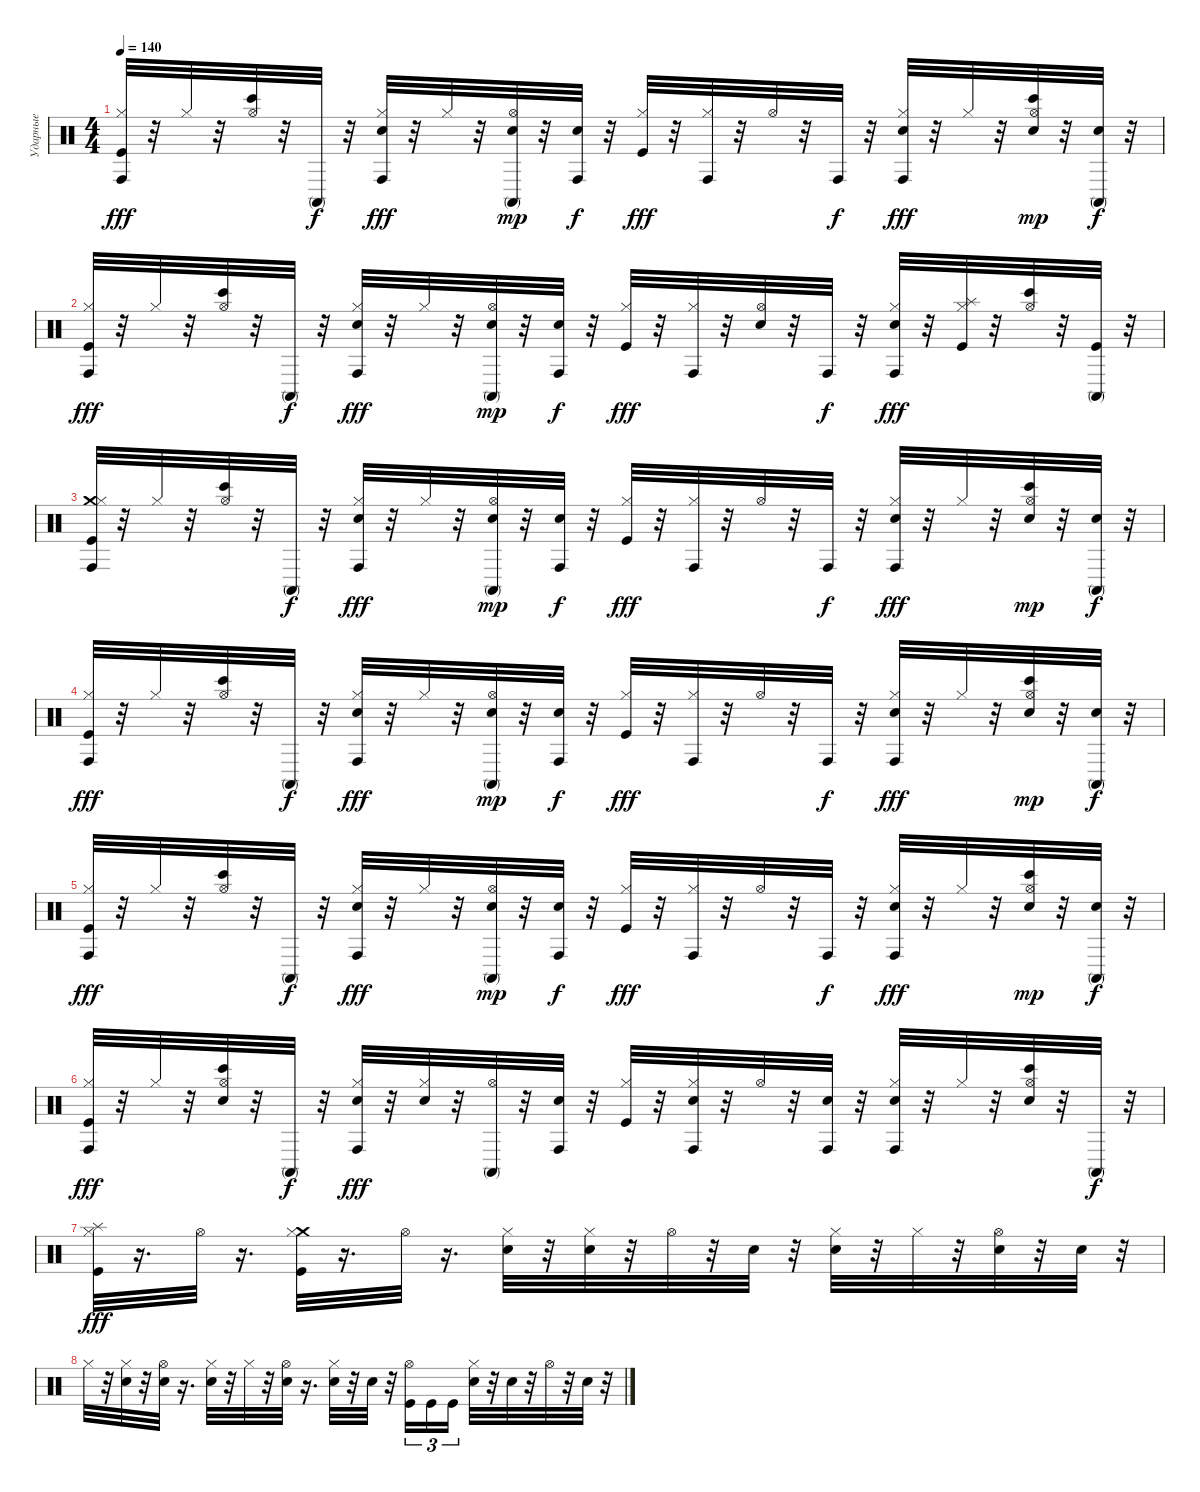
\track ("Ударные" "Ударные") {instrument percussion}
\staff {score}
\articulation defaults
\ts (4 4)
\tempo 140
\clef neutral
\ks c
("Kick (hit)" "Hi-Hat (closed)" "Conga high (hit)").32{dy fff} r.32 "Hi-Hat (closed)".32 r.32 ("Bongo High (hit)" "Hi-Hat (open)").32 r.32 "Conga high (mute)".32{dy f} r.32 ("Conga high (hit)" "Hi-Hat (closed)" "Electric Snare (hit)").32{dy fff} r.32 "Hi-Hat (closed)".32 r.32 ("Conga high (mute)" "Hi-Hat (open)" "Electric Snare (hit)").32{dy mp} r.32 ("Conga high (hit)" "Electric Snare (hit)").32{dy f} r.32 ("Hi-Hat (closed)" "Kick (hit)").32{dy fff} r.32 ("Conga high (hit)" "Hi-Hat (closed)").32 r.32 "Hi-Hat (open)".32 r.32 "Conga high (hit)".32{dy f} r.32 ("Conga high (hit)" "Hi-Hat (closed)" "Electric Snare (hit)").32{dy fff} r.32 "Hi-Hat (closed)".32 r.32 ("Bongo High (hit)" "Hi-Hat (open)" "Electric Snare (hit)").32{dy mp} r.32 ("Conga high (mute)" "Electric Snare (hit)").32{dy f} r.32 |
("Hi-Hat (closed)" "Kick (hit)" "Conga high (hit)").32{dy fff} r.32 "Hi-Hat (closed)".32 r.32 ("Hi-Hat (open)" "Bongo High (hit)").32 r.32 "Conga high (mute)".32{dy f} r.32 ("Hi-Hat (closed)" "Electric Snare (hit)" "Conga high (hit)").32{dy fff} r.32 "Hi-Hat (closed)".32 r.32 ("Hi-Hat (open)" "Electric Snare (hit)" "Conga high (mute)").32{dy mp} r.32 ("Electric Snare (hit)" "Conga high (hit)").32{dy f} r.32 ("Hi-Hat (closed)" "Kick (hit)").32{dy fff} r.32 ("Hi-Hat (closed)" "Conga high (hit)").32 r.32 ("Hi-Hat (open)" "Electric Snare (hit)").32 r.32 "Conga high (hit)".32{dy f} r.32 ("Hi-Hat (closed)" "Conga high (hit)" "Electric Snare (hit)").32{dy fff} r.32 ("Hi-Hat (closed)" "Kick (hit)" "Splash (hit)").32 r.32 ("Hi-Hat (open)" "Bongo High (hit)").32 r.32 ("Conga high (mute)" "Kick (hit)").32 r.32 |
("Conga high (hit)" "Crash medium (hit)" "Hi-Hat (closed)" "Kick (hit)").32 r.32 "Hi-Hat (closed)".32 r.32 ("Bongo High (hit)" "Hi-Hat (open)").32 r.32 "Conga high (mute)".32{dy f} r.32 ("Conga high (hit)" "Hi-Hat (closed)" "Electric Snare (hit)").32{dy fff} r.32 "Hi-Hat (closed)".32 r.32 ("Conga high (mute)" "Hi-Hat (open)" "Electric Snare (hit)").32{dy mp} r.32 ("Conga high (hit)" "Electric Snare (hit)").32{dy f} r.32 ("Hi-Hat (closed)" "Kick (hit)").32{dy fff} r.32 ("Conga high (hit)" "Hi-Hat (closed)").32 r.32 "Hi-Hat (open)".32 r.32 "Conga high (hit)".32{dy f} r.32 ("Conga high (hit)" "Hi-Hat (closed)" "Electric Snare (hit)").32{dy fff} r.32 "Hi-Hat (closed)".32 r.32 ("Bongo High (hit)" "Hi-Hat (open)" "Electric Snare (hit)").32{dy mp} r.32 ("Conga high (mute)" "Electric Snare (hit)").32{dy f} r.32 |
("Hi-Hat (closed)" "Kick (hit)" "Conga high (hit)").32{dy fff} r.32 "Hi-Hat (closed)".32 r.32 ("Hi-Hat (open)" "Bongo High (hit)").32 r.32 "Conga high (mute)".32{dy f} r.32 ("Hi-Hat (closed)" "Electric Snare (hit)" "Conga high (hit)").32{dy fff} r.32 "Hi-Hat (closed)".32 r.32 ("Hi-Hat (open)" "Electric Snare (hit)" "Conga high (mute)").32{dy mp} r.32 ("Electric Snare (hit)" "Conga high (hit)").32{dy f} r.32 ("Hi-Hat (closed)" "Kick (hit)").32{dy fff} r.32 ("Hi-Hat (closed)" "Conga high (hit)").32 r.32 "Hi-Hat (open)".32 r.32 "Conga high (hit)".32{dy f} r.32 ("Hi-Hat (closed)" "Electric Snare (hit)" "Conga high (hit)").32{dy fff} r.32 "Hi-Hat (closed)".32 r.32 ("Hi-Hat (open)" "Electric Snare (hit)" "Bongo High (hit)").32{dy mp} r.32 ("Electric Snare (hit)" "Conga high (mute)").32{dy f} r.32 |
("Kick (hit)" "Hi-Hat (closed)" "Conga high (hit)").32{dy fff} r.32 "Hi-Hat (closed)".32 r.32 ("Bongo High (hit)" "Hi-Hat (open)").32 r.32 "Conga high (mute)".32{dy f} r.32 ("Conga high (hit)" "Hi-Hat (closed)" "Electric Snare (hit)").32{dy fff} r.32 "Hi-Hat (closed)".32 r.32 ("Conga high (mute)" "Hi-Hat (open)" "Electric Snare (hit)").32{dy mp} r.32 ("Conga high (hit)" "Electric Snare (hit)").32{dy f} r.32 ("Hi-Hat (closed)" "Kick (hit)").32{dy fff} r.32 ("Conga high (hit)" "Hi-Hat (closed)").32 r.32 "Hi-Hat (open)".32 r.32 "Conga high (hit)".32{dy f} r.32 ("Conga high (hit)" "Hi-Hat (closed)" "Electric Snare (hit)").32{dy fff} r.32 "Hi-Hat (closed)".32 r.32 ("Bongo High (hit)" "Hi-Hat (open)" "Electric Snare (hit)").32{dy mp} r.32 ("Conga high (mute)" "Electric Snare (hit)").32{dy f} r.32 |
("Hi-Hat (closed)" "Kick (hit)" "Conga high (hit)").32{dy fff} r.32 "Hi-Hat (closed)".32 r.32 ("Hi-Hat (open)" "Bongo High (hit)" "Electric Snare (hit)").32 r.32 "Conga high (mute)".32{dy f} r.32 ("Hi-Hat (closed)" "Conga high (hit)" "Electric Snare (hit)").32{dy fff} r.32 ("Hi-Hat (closed)" "Electric Snare (hit)").32 r.32 ("Hi-Hat (open)" "Conga high (mute)").32 r.32 ("Conga high (hit)" "Electric Snare (hit)").32 r.32 ("Hi-Hat (closed)" "Kick (hit)").32 r.32 ("Hi-Hat (closed)" "Conga high (hit)" "Electric Snare (hit)").32 r.32 "Hi-Hat (open)".32 r.32 ("Conga high (hit)" "Electric Snare (hit)").32 r.32 ("Hi-Hat (closed)" "Conga high (hit)" "Electric Snare (hit)").32 r.32 "Hi-Hat (closed)".32 r.32 ("Hi-Hat (open)" "Bongo High (hit)" "Electric Snare (hit)").32 r.32 "Conga high (mute)".32{dy f} r.32 |
("Kick (hit)" "Hi-Hat (closed)" "Splash (hit)").32{dy fff} r.16{d} "Hi-Hat (open)".32 r.16{d} ("Kick (hit)" "Crash medium (hit)" "Hi-Hat (closed)").32 r.16{d} "Hi-Hat (open)".32 r.16{d} ("Hi-Hat (closed)" "Electric Snare (hit)").32 r.32 ("Hi-Hat (closed)" "Electric Snare (hit)").32 r.32 "Hi-Hat (open)".32 r.32 "Electric Snare (hit)".32 r.32 ("Hi-Hat (closed)" "Electric Snare (hit)").32 r.32 "Hi-Hat (closed)".32 r.32 ("Hi-Hat (open)" "Electric Snare (hit)").32 r.32 "Electric Snare (hit)".32 r.32 |
"Hi-Hat (closed)".32 r.32 ("Electric Snare (hit)" "Hi-Hat (closed)").32 r.32 ("Electric Snare (hit)" "Hi-Hat (open)").32 r.16{d} ("Electric Snare (hit)" "Hi-Hat (closed)").32 r.32 "Hi-Hat (closed)".32 r.32 ("Electric Snare (hit)" "Hi-Hat (open)").32 r.16{d} ("Hi-Hat (closed)" "Electric Snare (hit)").32 r.32 "Electric Snare (hit)".32 r.32 ("Hi-Hat (open)" "Kick (hit)").16{tu (3 2)} "Kick (hit)".16{tu (3 2)} "Kick (hit)".16{tu (3 2)} ("Hi-Hat (closed)" "Electric Snare (hit)").32 r.32 "Electric Snare (hit)".32 r.32 "Hi-Hat (open)".32 r.32 "Electric Snare (hit)".32 r.32
